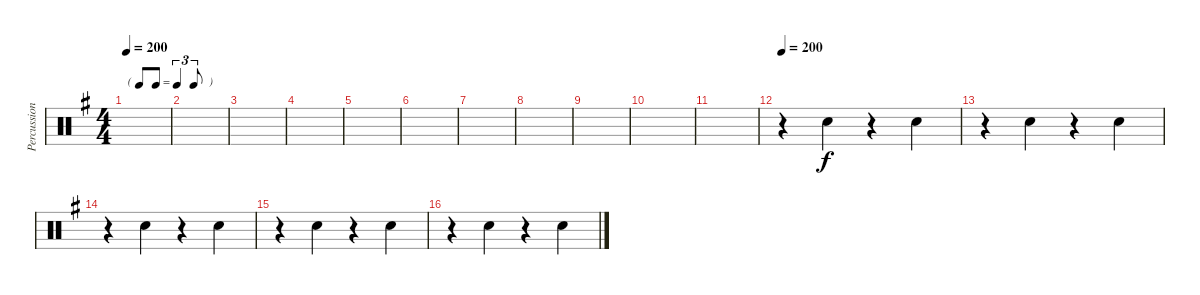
\track ("Percussion" "Percussion") {instrument percussion}
\staff {score}
\articulation defaults
\ts (4 4)
\tf triplet8th
\tempo 200
\tempo 150
\tempo 200
\clef neutral
\ks g
|
|
|
|
|
|
|
|
|
|
|
\tempo 200
r.4 "Hand Clap (hit)".4 r.4 "Hand Clap (hit)".4 |
r.4 "Hand Clap (hit)".4 r.4 "Hand Clap (hit)".4 |
r.4 "Hand Clap (hit)".4 r.4 "Hand Clap (hit)".4 |
r.4 "Hand Clap (hit)".4 r.4 "Hand Clap (hit)".4 |
r.4 "Hand Clap (hit)".4 r.4 "Hand Clap (hit)".4
